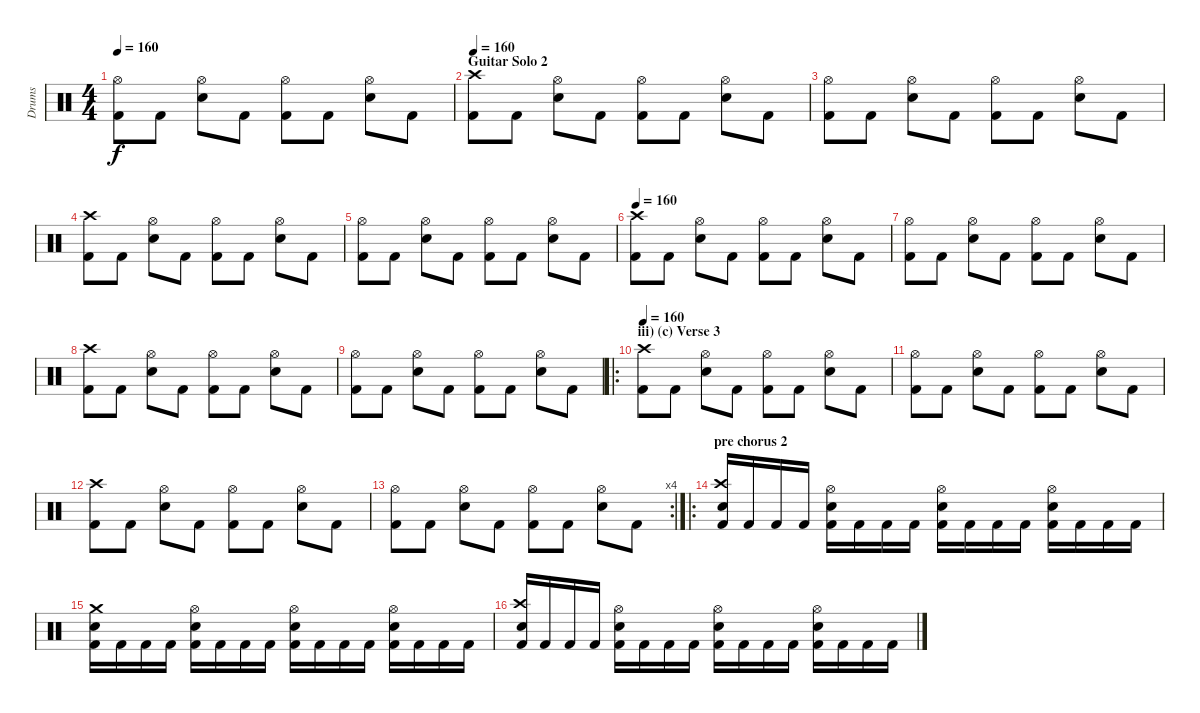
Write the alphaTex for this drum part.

\track ("Drums" "Drums") {instrument percussion}
\staff {score}
\articulation defaults
\ts (4 4)
\tempo 160
\clef neutral
\ks c
("Hi-Hat (open)" "Kick (hit) 2").8{dy f} "Kick (hit) 2".8 ("Hi-Hat (open)" "Electric Snare (hit)").8 "Kick (hit) 2".8 ("Hi-Hat (open)" "Kick (hit) 2").8 "Kick (hit) 2".8 ("Hi-Hat (open)" "Electric Snare (hit)").8 "Kick (hit) 2".8 |
\section ("" "Guitar Solo 2")
\tempo 160
("Crash high (hit)" "Kick (hit) 2").8 "Kick (hit) 2".8 ("Hi-Hat (open)" "Electric Snare (hit)").8 "Kick (hit) 2".8 ("Hi-Hat (open)" "Kick (hit) 2").8 "Kick (hit) 2".8 ("Hi-Hat (open)" "Electric Snare (hit)").8 "Kick (hit) 2".8 |
("Hi-Hat (open)" "Kick (hit) 2").8 "Kick (hit) 2".8 ("Hi-Hat (open)" "Electric Snare (hit)").8 "Kick (hit) 2".8 ("Hi-Hat (open)" "Kick (hit) 2").8 "Kick (hit) 2".8 ("Hi-Hat (open)" "Electric Snare (hit)").8 "Kick (hit) 2".8 |
("Crash high (hit)" "Kick (hit) 2").8 "Kick (hit) 2".8 ("Hi-Hat (open)" "Electric Snare (hit)").8 "Kick (hit) 2".8 ("Hi-Hat (open)" "Kick (hit) 2").8 "Kick (hit) 2".8 ("Hi-Hat (open)" "Electric Snare (hit)").8 "Kick (hit) 2".8 |
("Hi-Hat (open)" "Kick (hit) 2").8 "Kick (hit) 2".8 ("Hi-Hat (open)" "Electric Snare (hit)").8 "Kick (hit) 2".8 ("Hi-Hat (open)" "Kick (hit) 2").8 "Kick (hit) 2".8 ("Hi-Hat (open)" "Electric Snare (hit)").8 "Kick (hit) 2".8 |
\tempo 160
("Crash high (hit)" "Kick (hit) 2").8 "Kick (hit) 2".8 ("Hi-Hat (open)" "Electric Snare (hit)").8 "Kick (hit) 2".8 ("Hi-Hat (open)" "Kick (hit) 2").8 "Kick (hit) 2".8 ("Hi-Hat (open)" "Electric Snare (hit)").8 "Kick (hit) 2".8 |
("Hi-Hat (open)" "Kick (hit) 2").8 "Kick (hit) 2".8 ("Hi-Hat (open)" "Electric Snare (hit)").8 "Kick (hit) 2".8 ("Hi-Hat (open)" "Kick (hit) 2").8 "Kick (hit) 2".8 ("Hi-Hat (open)" "Electric Snare (hit)").8 "Kick (hit) 2".8 |
("Crash high (hit)" "Kick (hit) 2").8 "Kick (hit) 2".8 ("Hi-Hat (open)" "Electric Snare (hit)").8 "Kick (hit) 2".8 ("Hi-Hat (open)" "Kick (hit) 2").8 "Kick (hit) 2".8 ("Hi-Hat (open)" "Electric Snare (hit)").8 "Kick (hit) 2".8 |
("Hi-Hat (open)" "Kick (hit) 2").8 "Kick (hit) 2".8 ("Hi-Hat (open)" "Electric Snare (hit)").8 "Kick (hit) 2".8 ("Hi-Hat (open)" "Kick (hit) 2").8 "Kick (hit) 2".8 ("Hi-Hat (open)" "Electric Snare (hit)").8 "Kick (hit) 2".8 |
\ro
\section ("" "iii) (c) Verse 3")
\tempo 160
("Crash high (hit)" "Kick (hit) 2").8 "Kick (hit) 2".8 ("Hi-Hat (open)" "Electric Snare (hit)").8 "Kick (hit) 2".8 ("Hi-Hat (open)" "Kick (hit) 2").8 "Kick (hit) 2".8 ("Hi-Hat (open)" "Electric Snare (hit)").8 "Kick (hit) 2".8 |
("Hi-Hat (open)" "Kick (hit) 2").8 "Kick (hit) 2".8 ("Hi-Hat (open)" "Electric Snare (hit)").8 "Kick (hit) 2".8 ("Hi-Hat (open)" "Kick (hit) 2").8 "Kick (hit) 2".8 ("Hi-Hat (open)" "Electric Snare (hit)").8 "Kick (hit) 2".8 |
("Crash high (hit)" "Kick (hit) 2").8 "Kick (hit) 2".8 ("Hi-Hat (open)" "Electric Snare (hit)").8 "Kick (hit) 2".8 ("Hi-Hat (open)" "Kick (hit) 2").8 "Kick (hit) 2".8 ("Hi-Hat (open)" "Electric Snare (hit)").8 "Kick (hit) 2".8 |
\rc 4
("Hi-Hat (open)" "Kick (hit) 2").8 "Kick (hit) 2".8 ("Hi-Hat (open)" "Electric Snare (hit)").8 "Kick (hit) 2".8 ("Hi-Hat (open)" "Kick (hit) 2").8 "Kick (hit) 2".8 ("Hi-Hat (open)" "Electric Snare (hit)").8 "Kick (hit) 2".8 |
\ro
\section ("" "pre chorus 2")
("Crash high (hit)" "Snare (hit) 2" "Kick (hit) 2").16 "Kick (hit) 2".16 "Kick (hit) 2".16 "Kick (hit) 2".16 ("Hi-Hat (open)" "Snare (hit) 2" "Kick (hit) 2").16 "Kick (hit) 2".16 "Kick (hit) 2".16 "Kick (hit) 2".16 ("Hi-Hat (open)" "Snare (hit) 2" "Kick (hit) 2").16 "Kick (hit) 2".16 "Kick (hit) 2".16 "Kick (hit) 2".16 ("Hi-Hat (open)" "Snare (hit) 2" "Kick (hit) 2").16 "Kick (hit) 2".16 "Kick (hit) 2".16 "Kick (hit) 2".16 |
("Crash medium (hit)" "Snare (hit) 2" "Kick (hit) 2").16 "Kick (hit) 2".16 "Kick (hit) 2".16 "Kick (hit) 2".16 ("Hi-Hat (open)" "Snare (hit) 2" "Kick (hit) 2").16 "Kick (hit) 2".16 "Kick (hit) 2".16 "Kick (hit) 2".16 ("Hi-Hat (open)" "Snare (hit) 2" "Kick (hit) 2").16 "Kick (hit) 2".16 "Kick (hit) 2".16 "Kick (hit) 2".16 ("Hi-Hat (open)" "Snare (hit) 2" "Kick (hit) 2").16 "Kick (hit) 2".16 "Kick (hit) 2".16 "Kick (hit) 2".16 |
("Crash high (hit)" "Snare (hit) 2" "Kick (hit) 2").16 "Kick (hit) 2".16 "Kick (hit) 2".16 "Kick (hit) 2".16 ("Hi-Hat (open)" "Snare (hit) 2" "Kick (hit) 2").16 "Kick (hit) 2".16 "Kick (hit) 2".16 "Kick (hit) 2".16 ("Hi-Hat (open)" "Snare (hit) 2" "Kick (hit) 2").16 "Kick (hit) 2".16 "Kick (hit) 2".16 "Kick (hit) 2".16 ("Hi-Hat (open)" "Snare (hit) 2" "Kick (hit) 2").16 "Kick (hit) 2".16 "Kick (hit) 2".16 "Kick (hit) 2".16
